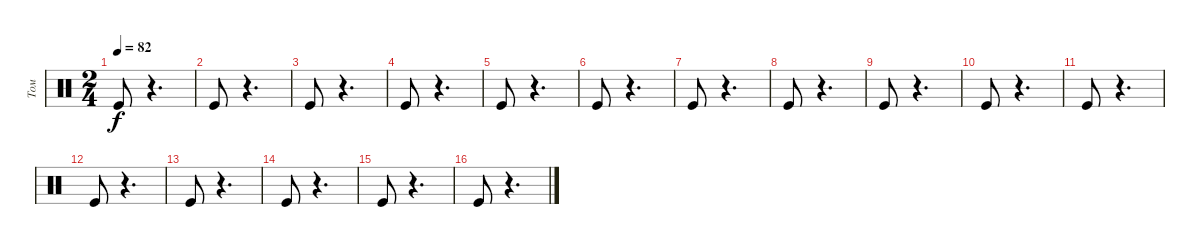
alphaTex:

\track ("Том" "Том") {instrument percussion}
\staff {score}
\articulation defaults
\ts (2 4)
\tempo 82
\clef neutral
\ks c "Kick (hit)".8{dy f}
r.4{d} |
"Kick (hit)".8 r.4{d} |
"Kick (hit)".8 r.4{d} |
"Kick (hit)".8 r.4{d} |
"Kick (hit)".8 r.4{d} |
"Kick (hit)".8 r.4{d} |
"Kick (hit)".8 r.4{d} |
"Kick (hit)".8 r.4{d} |
"Kick (hit)".8 r.4{d} |
"Kick (hit)".8 r.4{d} |
"Kick (hit)".8 r.4{d} |
"Kick (hit)".8 r.4{d} |
"Kick (hit)".8 r.4{d} |
"Kick (hit)".8 r.4{d} |
"Kick (hit)".8 r.4{d} |
"Kick (hit)".8 r.4{d}
